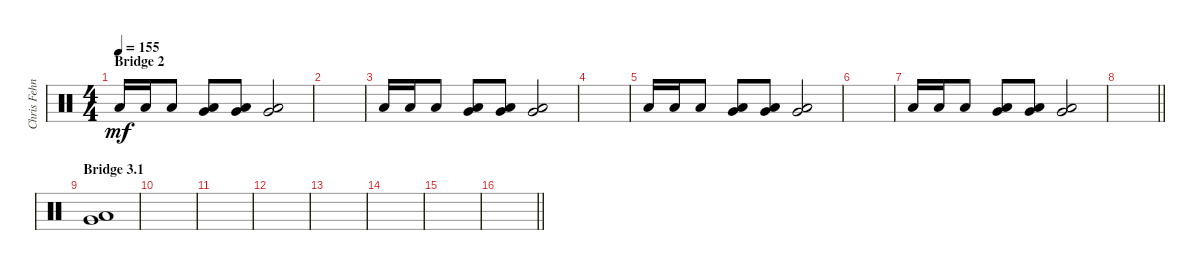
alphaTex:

\track ("Chris Fehn" "Chris Fehn") {instrument percussion}
\staff {score}
\articulation defaults
\ts (4 4)
\section ("" "Bridge 2")
\tempo 155
\clef neutral
\ks c "Low Floor Tom (hit)".16{dy mf} "Low Floor Tom (hit)".16 "Low Floor Tom (hit)".8
("Very Low Tom (hit)" "Low Floor Tom (hit)").8 ("Very Low Tom (hit)" "Low Floor Tom (hit)").8 ("Very Low Tom (hit)" "Low Floor Tom (hit)").2 |
|
"Low Floor Tom (hit)".16 "Low Floor Tom (hit)".16 "Low Floor Tom (hit)".8 ("Very Low Tom (hit)" "Low Floor Tom (hit)").8 ("Very Low Tom (hit)" "Low Floor Tom (hit)").8 ("Very Low Tom (hit)" "Low Floor Tom (hit)").2 |
|
"Low Floor Tom (hit)".16 "Low Floor Tom (hit)".16 "Low Floor Tom (hit)".8 ("Very Low Tom (hit)" "Low Floor Tom (hit)").8 ("Very Low Tom (hit)" "Low Floor Tom (hit)").8 ("Very Low Tom (hit)" "Low Floor Tom (hit)").2 |
|
"Low Floor Tom (hit)".16 "Low Floor Tom (hit)".16 "Low Floor Tom (hit)".8 ("Very Low Tom (hit)" "Low Floor Tom (hit)").8 ("Very Low Tom (hit)" "Low Floor Tom (hit)").8 ("Very Low Tom (hit)" "Low Floor Tom (hit)").2 |
\barLineRight lightlight
|
\section ("" "Bridge 3.1")
("Very Low Tom (hit)" "Low Floor Tom (hit)").1 |
|
|
|
|
|
|
\barLineRight lightlight
